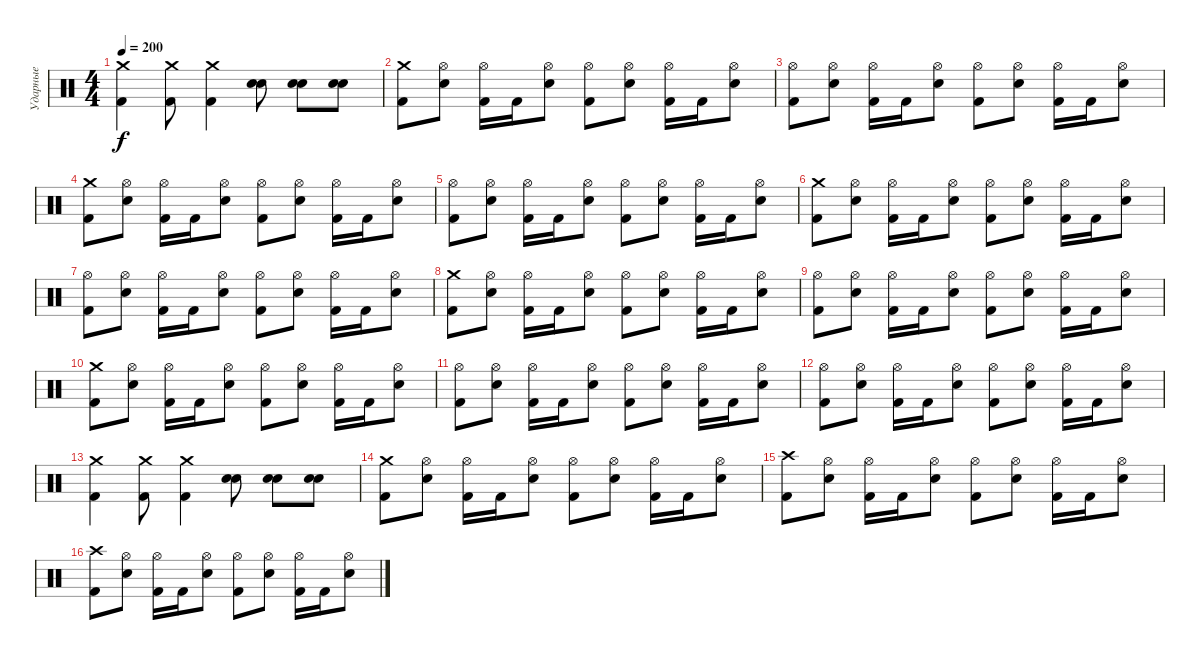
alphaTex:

\track ("Ударные" "Ударные") {instrument percussion}
\staff {score}
\articulation defaults
\ts (4 4)
\tempo 200
\clef neutral
\ks c
("Crash medium (hit)" "Kick (hit) 2").4{dy f} ("Crash medium (hit)" "Kick (hit) 2").8 ("Crash medium (hit)" "Kick (hit) 2").4 ("Electric Snare (hit)" "Electric Snare (hit)").8 ("Electric Snare (hit)" "Electric Snare (hit)").8 ("Electric Snare (hit)" "Electric Snare (hit)").8 |
("Crash medium (hit)" "Kick (hit) 2").8 ("Hi-Hat (open)" "Electric Snare (hit)").8 ("Hi-Hat (open)" "Kick (hit) 2").16 "Kick (hit) 2".16 ("Hi-Hat (open)" "Electric Snare (hit)").8 ("Hi-Hat (open)" "Kick (hit) 2").8 ("Hi-Hat (open)" "Electric Snare (hit)").8 ("Hi-Hat (open)" "Kick (hit) 2").16 "Kick (hit) 2".16 ("Hi-Hat (open)" "Electric Snare (hit)").8 |
("Hi-Hat (open)" "Kick (hit) 2").8 ("Hi-Hat (open)" "Electric Snare (hit)").8 ("Hi-Hat (open)" "Kick (hit) 2").16 "Kick (hit) 2".16 ("Hi-Hat (open)" "Electric Snare (hit)").8 ("Hi-Hat (open)" "Kick (hit) 2").8 ("Hi-Hat (open)" "Electric Snare (hit)").8 ("Hi-Hat (open)" "Kick (hit) 2").16 "Kick (hit) 2".16 ("Hi-Hat (open)" "Electric Snare (hit)").8 |
("Crash medium (hit)" "Kick (hit) 2").8 ("Hi-Hat (open)" "Electric Snare (hit)").8 ("Hi-Hat (open)" "Kick (hit) 2").16 "Kick (hit) 2".16 ("Hi-Hat (open)" "Electric Snare (hit)").8 ("Hi-Hat (open)" "Kick (hit) 2").8 ("Hi-Hat (open)" "Electric Snare (hit)").8 ("Hi-Hat (open)" "Kick (hit) 2").16 "Kick (hit) 2".16 ("Hi-Hat (open)" "Electric Snare (hit)").8 |
("Hi-Hat (open)" "Kick (hit) 2").8 ("Hi-Hat (open)" "Electric Snare (hit)").8 ("Hi-Hat (open)" "Kick (hit) 2").16 "Kick (hit) 2".16 ("Hi-Hat (open)" "Electric Snare (hit)").8 ("Hi-Hat (open)" "Kick (hit) 2").8 ("Hi-Hat (open)" "Electric Snare (hit)").8 ("Hi-Hat (open)" "Kick (hit) 2").16 "Kick (hit) 2".16 ("Hi-Hat (open)" "Electric Snare (hit)").8 |
("Crash medium (hit)" "Kick (hit) 2").8 ("Hi-Hat (open)" "Electric Snare (hit)").8 ("Hi-Hat (open)" "Kick (hit) 2").16 "Kick (hit) 2".16 ("Hi-Hat (open)" "Electric Snare (hit)").8 ("Hi-Hat (open)" "Kick (hit) 2").8 ("Hi-Hat (open)" "Electric Snare (hit)").8 ("Hi-Hat (open)" "Kick (hit) 2").16 "Kick (hit) 2".16 ("Hi-Hat (open)" "Electric Snare (hit)").8 |
("Hi-Hat (open)" "Kick (hit) 2").8 ("Hi-Hat (open)" "Electric Snare (hit)").8 ("Hi-Hat (open)" "Kick (hit) 2").16 "Kick (hit) 2".16 ("Hi-Hat (open)" "Electric Snare (hit)").8 ("Hi-Hat (open)" "Kick (hit) 2").8 ("Hi-Hat (open)" "Electric Snare (hit)").8 ("Hi-Hat (open)" "Kick (hit) 2").16 "Kick (hit) 2".16 ("Hi-Hat (open)" "Electric Snare (hit)").8 |
("Crash medium (hit)" "Kick (hit) 2").8 ("Hi-Hat (open)" "Electric Snare (hit)").8 ("Hi-Hat (open)" "Kick (hit) 2").16 "Kick (hit) 2".16 ("Hi-Hat (open)" "Electric Snare (hit)").8 ("Hi-Hat (open)" "Kick (hit) 2").8 ("Hi-Hat (open)" "Electric Snare (hit)").8 ("Hi-Hat (open)" "Kick (hit) 2").16 "Kick (hit) 2".16 ("Hi-Hat (open)" "Electric Snare (hit)").8 |
("Hi-Hat (open)" "Kick (hit) 2").8 ("Hi-Hat (open)" "Electric Snare (hit)").8 ("Hi-Hat (open)" "Kick (hit) 2").16 "Kick (hit) 2".16 ("Hi-Hat (open)" "Electric Snare (hit)").8 ("Hi-Hat (open)" "Kick (hit) 2").8 ("Hi-Hat (open)" "Electric Snare (hit)").8 ("Hi-Hat (open)" "Kick (hit) 2").16 "Kick (hit) 2".16 ("Hi-Hat (open)" "Electric Snare (hit)").8 |
("Crash medium (hit)" "Kick (hit) 2").8 ("Hi-Hat (open)" "Electric Snare (hit)").8 ("Hi-Hat (open)" "Kick (hit) 2").16 "Kick (hit) 2".16 ("Hi-Hat (open)" "Electric Snare (hit)").8 ("Hi-Hat (open)" "Kick (hit) 2").8 ("Hi-Hat (open)" "Electric Snare (hit)").8 ("Hi-Hat (open)" "Kick (hit) 2").16 "Kick (hit) 2".16 ("Hi-Hat (open)" "Electric Snare (hit)").8 |
("Hi-Hat (open)" "Kick (hit) 2").8 ("Hi-Hat (open)" "Electric Snare (hit)").8 ("Hi-Hat (open)" "Kick (hit) 2").16 "Kick (hit) 2".16 ("Hi-Hat (open)" "Electric Snare (hit)").8 ("Hi-Hat (open)" "Kick (hit) 2").8 ("Hi-Hat (open)" "Electric Snare (hit)").8 ("Hi-Hat (open)" "Kick (hit) 2").16 "Kick (hit) 2".16 ("Hi-Hat (open)" "Electric Snare (hit)").8 |
("Hi-Hat (open)" "Kick (hit) 2").8 ("Hi-Hat (open)" "Electric Snare (hit)").8 ("Hi-Hat (open)" "Kick (hit) 2").16 "Kick (hit) 2".16 ("Hi-Hat (open)" "Electric Snare (hit)").8 ("Hi-Hat (open)" "Kick (hit) 2").8 ("Hi-Hat (open)" "Electric Snare (hit)").8 ("Hi-Hat (open)" "Kick (hit) 2").16 "Kick (hit) 2".16 ("Hi-Hat (open)" "Electric Snare (hit)").8 |
("Crash medium (hit)" "Kick (hit) 2").4 ("Crash medium (hit)" "Kick (hit) 2").8 ("Crash medium (hit)" "Kick (hit) 2").4 ("Electric Snare (hit)" "Electric Snare (hit)").8 ("Electric Snare (hit)" "Electric Snare (hit)").8 ("Electric Snare (hit)" "Electric Snare (hit)").8 |
("Crash medium (hit)" "Kick (hit) 2").8 ("Hi-Hat (open)" "Electric Snare (hit)").8 ("Hi-Hat (open)" "Kick (hit) 2").16 "Kick (hit) 2".16 ("Hi-Hat (open)" "Electric Snare (hit)").8 ("Hi-Hat (open)" "Kick (hit) 2").8 ("Hi-Hat (open)" "Electric Snare (hit)").8 ("Hi-Hat (open)" "Kick (hit) 2").16 "Kick (hit) 2".16 ("Hi-Hat (open)" "Electric Snare (hit)").8 |
("Crash high (hit)" "Kick (hit) 2").8 ("Hi-Hat (open)" "Electric Snare (hit)").8 ("Hi-Hat (open)" "Kick (hit) 2").16 "Kick (hit) 2".16 ("Hi-Hat (open)" "Electric Snare (hit)").8 ("Hi-Hat (open)" "Kick (hit) 2").8 ("Hi-Hat (open)" "Electric Snare (hit)").8 ("Hi-Hat (open)" "Kick (hit) 2").16 "Kick (hit) 2".16 ("Hi-Hat (open)" "Electric Snare (hit)").8 |
("Crash high (hit)" "Kick (hit) 2").8 ("Hi-Hat (open)" "Electric Snare (hit)").8 ("Hi-Hat (open)" "Kick (hit) 2").16 "Kick (hit) 2".16 ("Hi-Hat (open)" "Electric Snare (hit)").8 ("Hi-Hat (open)" "Kick (hit) 2").8 ("Hi-Hat (open)" "Electric Snare (hit)").8 ("Hi-Hat (open)" "Kick (hit) 2").16 "Kick (hit) 2".16 ("Hi-Hat (open)" "Electric Snare (hit)").8
